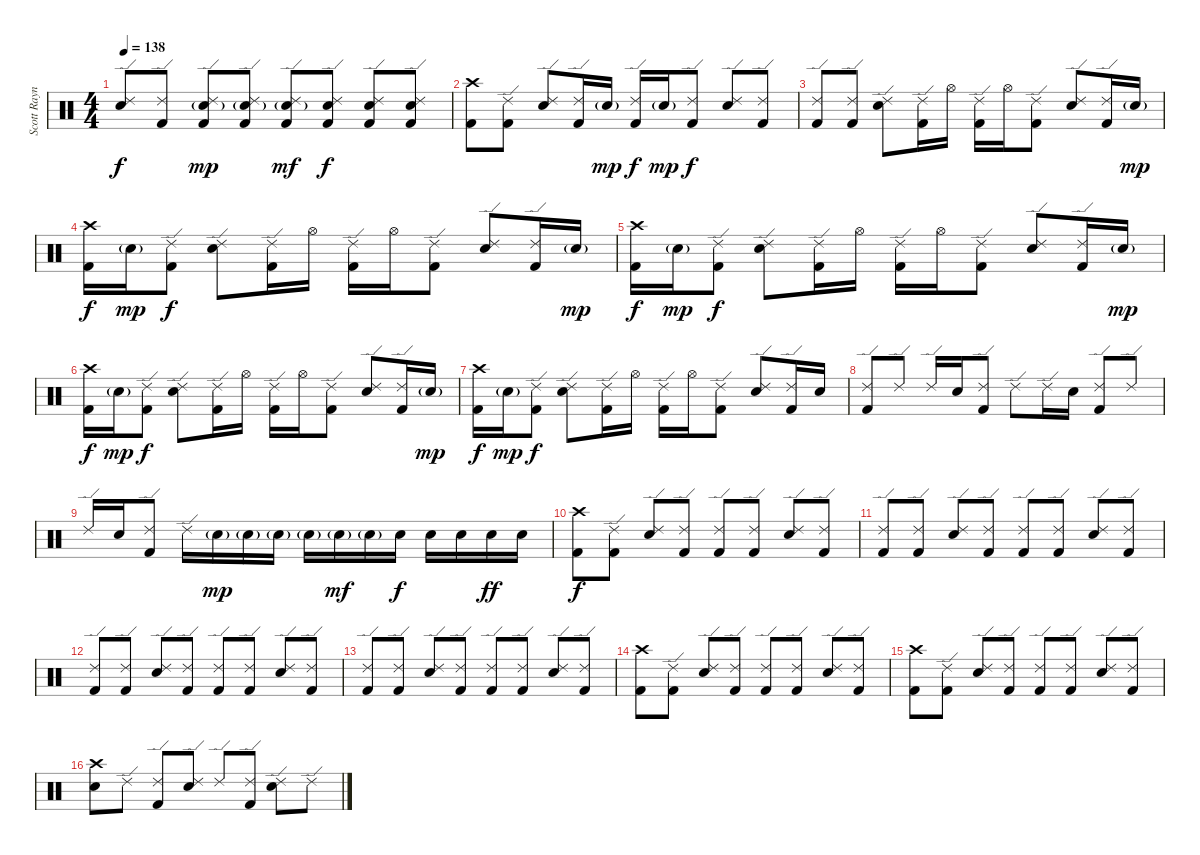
\track ("Scott Raynor" "Scott Rayn") {instrument percussion}
\staff {score}
\articulation defaults
\ts (4 4)
\tempo 138
\clef neutral
\ks c
("Ride (edge) 2" "Snare (hit) 2").8{dy f} ("Ride (edge) 2" "Kick (hit) 2").8 ("Ride (edge) 2" "Snare (hit) 2"{g} "Kick (hit) 2").8{dy mp} ("Ride (edge) 2" "Snare (hit) 2"{g} "Kick (hit) 2").8 ("Ride (edge) 2" "Snare (hit) 2"{g} "Kick (hit) 2").8{dy mf} ("Ride (edge) 2" "Snare (hit) 2" "Kick (hit) 2").8{dy f} ("Ride (edge) 2" "Snare (hit) 2" "Kick (hit) 2").8 ("Ride (edge) 2" "Snare (hit) 2" "Kick (hit) 2").8 |
("Crash high (hit)" "Kick (hit) 2").8 ("Ride (edge) 2" "Kick (hit) 2").8 ("Ride (edge) 2" "Snare (hit) 2").8 ("Ride (edge) 2" "Kick (hit) 2").16 "Snare (hit) 2"{g}.16{dy mp} ("Ride (edge) 2" "Kick (hit) 2").16{dy f} "Snare (hit) 2"{g}.16{dy mp} ("Ride (edge) 2" "Kick (hit) 2").8{dy f} ("Ride (edge) 2" "Snare (hit) 2").8 ("Ride (edge) 2" "Kick (hit) 2").8 |
("Ride (edge) 2" "Kick (hit) 2").8 ("Ride (edge) 2" "Kick (hit) 2").8 ("Ride (edge) 2" "Snare (hit) 2").8 ("Ride (edge) 2" "Kick (hit) 2").16 "Hi-Hat (open)".16 ("Ride (edge) 2" "Kick (hit) 2").16 "Hi-Hat (open)".16 ("Ride (edge) 2" "Kick (hit) 2").8 ("Ride (edge) 2" "Snare (hit) 2").8 ("Ride (edge) 2" "Kick (hit) 2").16 "Snare (hit) 2"{g}.16{dy mp} |
("Crash high (hit)" "Kick (hit) 2").16{dy f} "Snare (hit) 2"{g}.16{dy mp} ("Ride (edge) 2" "Kick (hit) 2").8{dy f} ("Ride (edge) 2" "Snare (hit) 2").8 ("Ride (edge) 2" "Kick (hit) 2").16 "Hi-Hat (open)".16 ("Ride (edge) 2" "Kick (hit) 2").16 "Hi-Hat (open)".16 ("Ride (edge) 2" "Kick (hit) 2").8 ("Ride (edge) 2" "Snare (hit) 2").8 ("Ride (edge) 2" "Kick (hit) 2").16 "Snare (hit) 2"{g}.16{dy mp} |
("Crash high (hit)" "Kick (hit) 2").16{dy f} "Snare (hit) 2"{g}.16{dy mp} ("Ride (edge) 2" "Kick (hit) 2").8{dy f} ("Ride (edge) 2" "Snare (hit) 2").8 ("Ride (edge) 2" "Kick (hit) 2").16 "Hi-Hat (open)".16 ("Ride (edge) 2" "Kick (hit) 2").16 "Hi-Hat (open)".16 ("Ride (edge) 2" "Kick (hit) 2").8 ("Ride (edge) 2" "Snare (hit) 2").8 ("Ride (edge) 2" "Kick (hit) 2").16 "Snare (hit) 2"{g}.16{dy mp} |
("Crash high (hit)" "Kick (hit) 2").16{dy f} "Snare (hit) 2"{g}.16{dy mp} ("Ride (edge) 2" "Kick (hit) 2").8{dy f} ("Ride (edge) 2" "Snare (hit) 2").8 ("Ride (edge) 2" "Kick (hit) 2").16 "Hi-Hat (open)".16 ("Ride (edge) 2" "Kick (hit) 2").16 "Hi-Hat (open)".16 ("Ride (edge) 2" "Kick (hit) 2").8 ("Ride (edge) 2" "Snare (hit) 2").8 ("Ride (edge) 2" "Kick (hit) 2").16 "Snare (hit) 2"{g}.16{dy mp} |
("Crash high (hit)" "Kick (hit) 2").16{dy f} "Snare (hit) 2"{g}.16{dy mp} ("Ride (edge) 2" "Kick (hit) 2").8{dy f} ("Ride (edge) 2" "Snare (hit) 2").8 ("Ride (edge) 2" "Kick (hit) 2").16 "Hi-Hat (open)".16 ("Ride (edge) 2" "Kick (hit) 2").16 "Hi-Hat (open)".16 ("Ride (edge) 2" "Kick (hit) 2").8 ("Ride (edge) 2" "Snare (hit) 2").8 ("Ride (edge) 2" "Kick (hit) 2").16 "Snare (hit) 2".16 |
("Ride (edge) 2" "Kick (hit) 2").8 "Ride (edge) 2".8 "Ride (edge) 2".16 "Snare (hit) 2".16 ("Ride (edge) 2" "Kick (hit) 2").8 "Ride (edge) 2".8 "Ride (edge) 2".16 "Snare (hit) 2".16 ("Ride (edge) 2" "Kick (hit) 2").8 "Ride (edge) 2".8 |
"Ride (edge) 2".16 "Snare (hit) 2".16 ("Ride (edge) 2" "Kick (hit) 2").8 "Ride (edge) 2".16 "Snare (hit) 2"{g}.16{dy mp} "Snare (hit) 2"{g}.16 "Snare (hit) 2"{g}.16 "Snare (hit) 2"{g}.16 "Snare (hit) 2"{g}.16{dy mf} "Snare (hit) 2"{g}.16 "Snare (hit) 2".16{dy f} "Snare (hit) 2".16 "Snare (hit) 2".16 "Snare (hit) 2".16{dy ff} "Snare (hit) 2".16 |
("Crash high (hit)" "Kick (hit) 2").8{dy f} ("Ride (edge) 2" "Kick (hit) 2").8 ("Ride (edge) 2" "Snare (hit) 2").8 ("Ride (edge) 2" "Kick (hit) 2").8 ("Ride (edge) 2" "Kick (hit) 2").8 ("Ride (edge) 2" "Kick (hit) 2").8 ("Ride (edge) 2" "Snare (hit) 2").8 ("Ride (edge) 2" "Kick (hit) 2").8 |
("Ride (edge) 2" "Kick (hit) 2").8 ("Ride (edge) 2" "Kick (hit) 2").8 ("Ride (edge) 2" "Snare (hit) 2").8 ("Ride (edge) 2" "Kick (hit) 2").8 ("Ride (edge) 2" "Kick (hit) 2").8 ("Ride (edge) 2" "Kick (hit) 2").8 ("Ride (edge) 2" "Snare (hit) 2").8 ("Ride (edge) 2" "Kick (hit) 2").8 |
("Ride (edge) 2" "Kick (hit) 2").8 ("Ride (edge) 2" "Kick (hit) 2").8 ("Ride (edge) 2" "Snare (hit) 2").8 ("Ride (edge) 2" "Kick (hit) 2").8 ("Ride (edge) 2" "Kick (hit) 2").8 ("Ride (edge) 2" "Kick (hit) 2").8 ("Ride (edge) 2" "Snare (hit) 2").8 ("Ride (edge) 2" "Kick (hit) 2").8 |
("Ride (edge) 2" "Kick (hit) 2").8 ("Ride (edge) 2" "Kick (hit) 2").8 ("Ride (edge) 2" "Snare (hit) 2").8 ("Ride (edge) 2" "Kick (hit) 2").8 ("Ride (edge) 2" "Kick (hit) 2").8 ("Ride (edge) 2" "Kick (hit) 2").8 ("Ride (edge) 2" "Snare (hit) 2").8 ("Ride (edge) 2" "Kick (hit) 2").8 |
("Crash high (hit)" "Kick (hit) 2").8 ("Ride (edge) 2" "Kick (hit) 2").8 ("Ride (edge) 2" "Snare (hit) 2").8 ("Ride (edge) 2" "Kick (hit) 2").8 ("Ride (edge) 2" "Kick (hit) 2").8 ("Ride (edge) 2" "Kick (hit) 2").8 ("Ride (edge) 2" "Snare (hit) 2").8 ("Ride (edge) 2" "Kick (hit) 2").8 |
("Crash high (hit)" "Kick (hit) 2").8 ("Ride (edge) 2" "Kick (hit) 2").8 ("Ride (edge) 2" "Snare (hit) 2").8 ("Ride (edge) 2" "Kick (hit) 2").8 ("Ride (edge) 2" "Kick (hit) 2").8 ("Ride (edge) 2" "Kick (hit) 2").8 ("Ride (edge) 2" "Snare (hit) 2").8 ("Ride (edge) 2" "Kick (hit) 2").8 |
("Crash high (hit)" "Snare (hit) 2").8 "Ride (edge) 2".8 ("Ride (edge) 2" "Kick (hit) 2").8 ("Ride (edge) 2" "Snare (hit) 2").8 "Ride (edge) 2".8 ("Ride (edge) 2" "Kick (hit) 2").8 ("Ride (edge) 2" "Snare (hit) 2").8 "Ride (edge) 2".8
